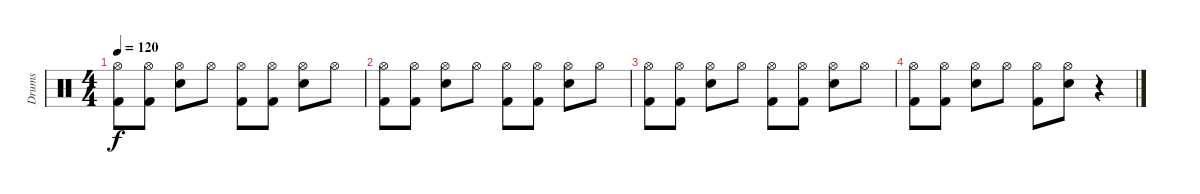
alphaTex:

\track ("Drums" "Drums") {instrument percussion}
\staff {score}
\articulation defaults
\ts (4 4)
\tempo 120
\clef neutral
\ks c
("Hi-Hat (open)" "Kick (hit) 2").8{dy f} ("Hi-Hat (open)" "Kick (hit) 2").8 ("Hi-Hat (open)" "Snare (hit) 2").8 "Hi-Hat (open)".8 ("Hi-Hat (open)" "Kick (hit) 2").8 ("Hi-Hat (open)" "Kick (hit) 2").8 ("Hi-Hat (open)" "Snare (hit) 2").8 "Hi-Hat (open)".8 |
("Hi-Hat (open)" "Kick (hit) 2").8 ("Hi-Hat (open)" "Kick (hit) 2").8 ("Hi-Hat (open)" "Snare (hit) 2").8 "Hi-Hat (open)".8 ("Hi-Hat (open)" "Kick (hit) 2").8 ("Hi-Hat (open)" "Kick (hit) 2").8 ("Hi-Hat (open)" "Snare (hit) 2").8 "Hi-Hat (open)".8 |
("Hi-Hat (open)" "Kick (hit) 2").8 ("Hi-Hat (open)" "Kick (hit) 2").8 ("Hi-Hat (open)" "Snare (hit) 2").8 "Hi-Hat (open)".8 ("Hi-Hat (open)" "Kick (hit) 2").8 ("Hi-Hat (open)" "Kick (hit) 2").8 ("Hi-Hat (open)" "Snare (hit) 2").8 "Hi-Hat (open)".8 |
("Hi-Hat (open)" "Kick (hit) 2").8 ("Hi-Hat (open)" "Kick (hit) 2").8 ("Hi-Hat (open)" "Snare (hit) 2").8 "Hi-Hat (open)".8 ("Hi-Hat (open)" "Kick (hit) 2").8 ("Hi-Hat (open)" "Snare (hit) 2").8 r.4
